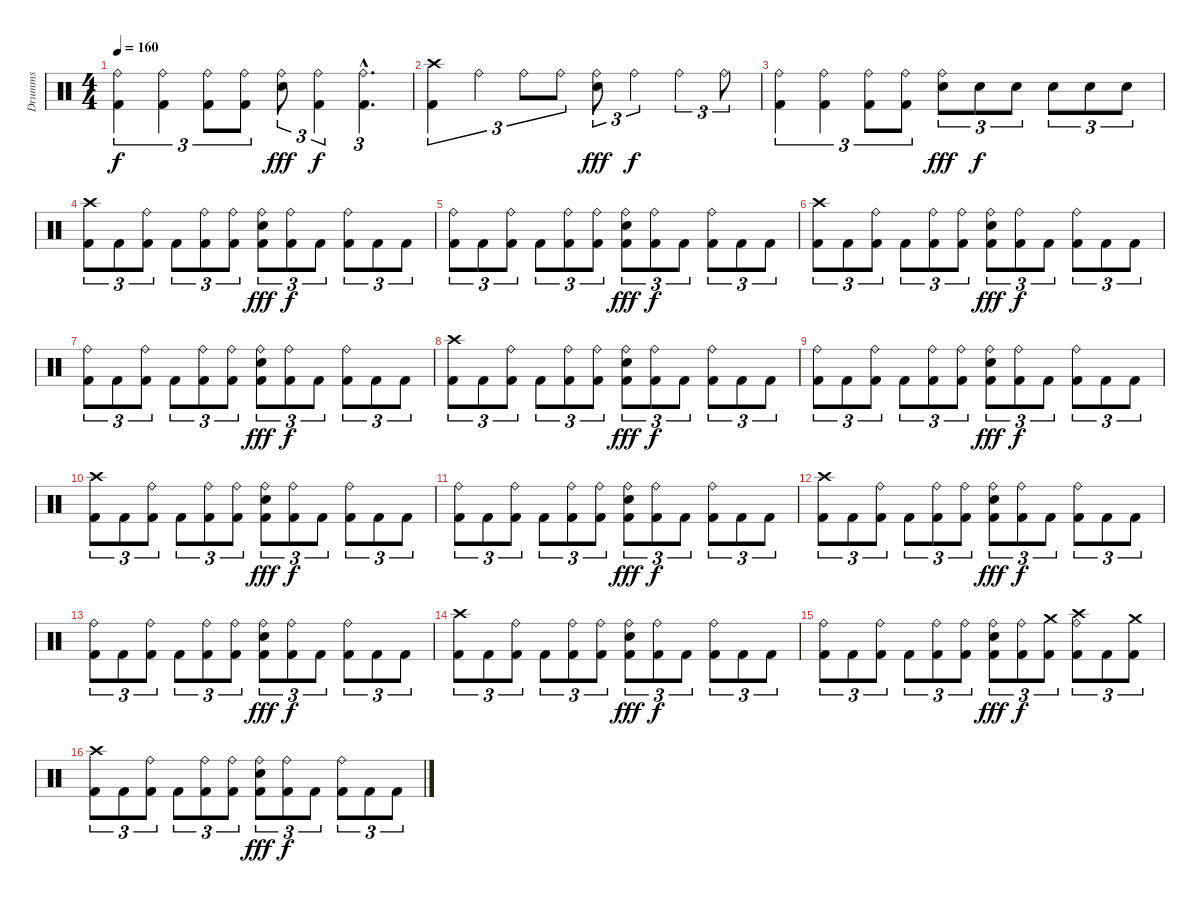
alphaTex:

\track ("Drumms" "Drumms") {instrument percussion}
\staff {score}
\articulation defaults
\ts (4 4)
\tempo 160
\clef neutral
\ks c
("Ride (bell)" "Kick (hit) 2").4{tu (3 2) dy f} ("Ride (bell)" "Kick (hit) 2").4{tu (3 2)} ("Ride (bell)" "Kick (hit) 2").8{tu (3 2)} ("Ride (bell)" "Kick (hit) 2").8{tu (3 2)} ("Ride (bell)" "Snare (hit) 2").8{tu (3 2) dy fff} ("Ride (bell)" "Kick (hit) 2").4{tu (3 2) dy f} ("Ride (bell)" "Kick (hit) 2"{hac}).4{d tu (3 2)} |
("Crash high (hit)" "Kick (hit) 2").4{tu (3 2)} "Ride (bell)".4{tu (3 2)} "Ride (bell)".8{tu (3 2)} "Ride (bell)".8{tu (3 2)} ("Ride (bell)" "Snare (hit) 2").8{tu (3 2) dy fff} "Ride (bell)".4{tu (3 2) dy f} "Ride (bell)".4{tu (3 2)} "Ride (bell)".8{tu (3 2)} |
("Ride (bell)" "Kick (hit) 2").4{tu (3 2)} ("Ride (bell)" "Kick (hit) 2").4{tu (3 2)} ("Ride (bell)" "Kick (hit) 2").8{tu (3 2)} ("Ride (bell)" "Kick (hit) 2").8{tu (3 2)} ("Ride (bell)" "Snare (hit) 2").8{tu (3 2) dy fff} "Snare (hit) 2".8{tu (3 2) dy f} "Snare (hit) 2".8{tu (3 2)} "Snare (hit) 2".8{tu (3 2)} "Snare (hit) 2".8{tu (3 2)} "Snare (hit) 2".8{tu (3 2)} |
("Kick (hit) 2" "Crash high (hit)").8{tu (3 2)} "Kick (hit) 2".8{tu (3 2)} ("Kick (hit) 2" "Ride (bell)").8{tu (3 2)} "Kick (hit) 2".8{tu (3 2)} ("Kick (hit) 2" "Ride (bell)").8{tu (3 2)} ("Kick (hit) 2" "Ride (bell)").8{tu (3 2)} ("Snare (hit) 2" "Kick (hit) 2" "Ride (bell)").8{tu (3 2) dy fff} ("Kick (hit) 2" "Ride (bell)").8{tu (3 2) dy f} "Kick (hit) 2".8{tu (3 2)} ("Kick (hit) 2" "Ride (bell)").8{tu (3 2)} "Kick (hit) 2".8{tu (3 2)} "Kick (hit) 2".8{tu (3 2)} |
\section ("" "")
("Kick (hit) 2" "Ride (bell)").8{tu (3 2)} "Kick (hit) 2".8{tu (3 2)} ("Kick (hit) 2" "Ride (bell)").8{tu (3 2)} "Kick (hit) 2".8{tu (3 2)} ("Kick (hit) 2" "Ride (bell)").8{tu (3 2)} ("Kick (hit) 2" "Ride (bell)").8{tu (3 2)} ("Snare (hit) 2" "Kick (hit) 2" "Ride (bell)").8{tu (3 2) dy fff} ("Kick (hit) 2" "Ride (bell)").8{tu (3 2) dy f} "Kick (hit) 2".8{tu (3 2)} ("Kick (hit) 2" "Ride (bell)").8{tu (3 2)} "Kick (hit) 2".8{tu (3 2)} "Kick (hit) 2".8{tu (3 2)} |
("Kick (hit) 2" "Crash high (hit)").8{tu (3 2)} "Kick (hit) 2".8{tu (3 2)} ("Kick (hit) 2" "Ride (bell)").8{tu (3 2)} "Kick (hit) 2".8{tu (3 2)} ("Kick (hit) 2" "Ride (bell)").8{tu (3 2)} ("Kick (hit) 2" "Ride (bell)").8{tu (3 2)} ("Snare (hit) 2" "Kick (hit) 2" "Ride (bell)").8{tu (3 2) dy fff} ("Kick (hit) 2" "Ride (bell)").8{tu (3 2) dy f} "Kick (hit) 2".8{tu (3 2)} ("Kick (hit) 2" "Ride (bell)").8{tu (3 2)} "Kick (hit) 2".8{tu (3 2)} "Kick (hit) 2".8{tu (3 2)} |
("Kick (hit) 2" "Ride (bell)").8{tu (3 2)} "Kick (hit) 2".8{tu (3 2)} ("Kick (hit) 2" "Ride (bell)").8{tu (3 2)} "Kick (hit) 2".8{tu (3 2)} ("Kick (hit) 2" "Ride (bell)").8{tu (3 2)} ("Kick (hit) 2" "Ride (bell)").8{tu (3 2)} ("Snare (hit) 2" "Kick (hit) 2" "Ride (bell)").8{tu (3 2) dy fff} ("Kick (hit) 2" "Ride (bell)").8{tu (3 2) dy f} "Kick (hit) 2".8{tu (3 2)} ("Kick (hit) 2" "Ride (bell)").8{tu (3 2)} "Kick (hit) 2".8{tu (3 2)} "Kick (hit) 2".8{tu (3 2)} |
("Kick (hit) 2" "Crash high (hit)").8{tu (3 2)} "Kick (hit) 2".8{tu (3 2)} ("Kick (hit) 2" "Ride (bell)").8{tu (3 2)} "Kick (hit) 2".8{tu (3 2)} ("Kick (hit) 2" "Ride (bell)").8{tu (3 2)} ("Kick (hit) 2" "Ride (bell)").8{tu (3 2)} ("Snare (hit) 2" "Kick (hit) 2" "Ride (bell)").8{tu (3 2) dy fff} ("Kick (hit) 2" "Ride (bell)").8{tu (3 2) dy f} "Kick (hit) 2".8{tu (3 2)} ("Kick (hit) 2" "Ride (bell)").8{tu (3 2)} "Kick (hit) 2".8{tu (3 2)} "Kick (hit) 2".8{tu (3 2)} |
("Kick (hit) 2" "Ride (bell)").8{tu (3 2)} "Kick (hit) 2".8{tu (3 2)} ("Kick (hit) 2" "Ride (bell)").8{tu (3 2)} "Kick (hit) 2".8{tu (3 2)} ("Kick (hit) 2" "Ride (bell)").8{tu (3 2)} ("Kick (hit) 2" "Ride (bell)").8{tu (3 2)} ("Snare (hit) 2" "Kick (hit) 2" "Ride (bell)").8{tu (3 2) dy fff} ("Kick (hit) 2" "Ride (bell)").8{tu (3 2) dy f} "Kick (hit) 2".8{tu (3 2)} ("Kick (hit) 2" "Ride (bell)").8{tu (3 2)} "Kick (hit) 2".8{tu (3 2)} "Kick (hit) 2".8{tu (3 2)} |
("Kick (hit) 2" "Crash high (hit)").8{tu (3 2)} "Kick (hit) 2".8{tu (3 2)} ("Kick (hit) 2" "Ride (bell)").8{tu (3 2)} "Kick (hit) 2".8{tu (3 2)} ("Kick (hit) 2" "Ride (bell)").8{tu (3 2)} ("Kick (hit) 2" "Ride (bell)").8{tu (3 2)} ("Snare (hit) 2" "Kick (hit) 2" "Ride (bell)").8{tu (3 2) dy fff} ("Kick (hit) 2" "Ride (bell)").8{tu (3 2) dy f} "Kick (hit) 2".8{tu (3 2)} ("Kick (hit) 2" "Ride (bell)").8{tu (3 2)} "Kick (hit) 2".8{tu (3 2)} "Kick (hit) 2".8{tu (3 2)} |
("Kick (hit) 2" "Ride (bell)").8{tu (3 2)} "Kick (hit) 2".8{tu (3 2)} ("Kick (hit) 2" "Ride (bell)").8{tu (3 2)} "Kick (hit) 2".8{tu (3 2)} ("Kick (hit) 2" "Ride (bell)").8{tu (3 2)} ("Kick (hit) 2" "Ride (bell)").8{tu (3 2)} ("Snare (hit) 2" "Kick (hit) 2" "Ride (bell)").8{tu (3 2) dy fff} ("Kick (hit) 2" "Ride (bell)").8{tu (3 2) dy f} "Kick (hit) 2".8{tu (3 2)} ("Kick (hit) 2" "Ride (bell)").8{tu (3 2)} "Kick (hit) 2".8{tu (3 2)} "Kick (hit) 2".8{tu (3 2)} |
("Kick (hit) 2" "Crash high (hit)").8{tu (3 2)} "Kick (hit) 2".8{tu (3 2)} ("Kick (hit) 2" "Ride (bell)").8{tu (3 2)} "Kick (hit) 2".8{tu (3 2)} ("Kick (hit) 2" "Ride (bell)").8{tu (3 2)} ("Kick (hit) 2" "Ride (bell)").8{tu (3 2)} ("Snare (hit) 2" "Kick (hit) 2" "Ride (bell)").8{tu (3 2) dy fff} ("Kick (hit) 2" "Ride (bell)").8{tu (3 2) dy f} "Kick (hit) 2".8{tu (3 2)} ("Kick (hit) 2" "Ride (bell)").8{tu (3 2)} "Kick (hit) 2".8{tu (3 2)} "Kick (hit) 2".8{tu (3 2)} |
("Kick (hit) 2" "Ride (bell)").8{tu (3 2)} "Kick (hit) 2".8{tu (3 2)} ("Kick (hit) 2" "Ride (bell)").8{tu (3 2)} "Kick (hit) 2".8{tu (3 2)} ("Kick (hit) 2" "Ride (bell)").8{tu (3 2)} ("Kick (hit) 2" "Ride (bell)").8{tu (3 2)} ("Snare (hit) 2" "Kick (hit) 2" "Ride (bell)").8{tu (3 2) dy fff} ("Kick (hit) 2" "Ride (bell)").8{tu (3 2) dy f} "Kick (hit) 2".8{tu (3 2)} ("Kick (hit) 2" "Ride (bell)").8{tu (3 2)} "Kick (hit) 2".8{tu (3 2)} "Kick (hit) 2".8{tu (3 2)} |
("Kick (hit) 2" "Crash high (hit)").8{tu (3 2)} "Kick (hit) 2".8{tu (3 2)} ("Kick (hit) 2" "Ride (bell)").8{tu (3 2)} "Kick (hit) 2".8{tu (3 2)} ("Kick (hit) 2" "Ride (bell)").8{tu (3 2)} ("Kick (hit) 2" "Ride (bell)").8{tu (3 2)} ("Snare (hit) 2" "Kick (hit) 2" "Ride (bell)").8{tu (3 2) dy fff} ("Kick (hit) 2" "Ride (bell)").8{tu (3 2) dy f} "Kick (hit) 2".8{tu (3 2)} ("Kick (hit) 2" "Ride (bell)").8{tu (3 2)} "Kick (hit) 2".8{tu (3 2)} "Kick (hit) 2".8{tu (3 2)} |
("Kick (hit) 2" "Ride (bell)").8{tu (3 2)} "Kick (hit) 2".8{tu (3 2)} ("Kick (hit) 2" "Ride (bell)").8{tu (3 2)} "Kick (hit) 2".8{tu (3 2)} ("Kick (hit) 2" "Ride (bell)").8{tu (3 2)} ("Kick (hit) 2" "Ride (bell)").8{tu (3 2)} ("Snare (hit) 2" "Kick (hit) 2" "Ride (bell)").8{tu (3 2) dy fff} ("Kick (hit) 2" "Ride (bell)").8{tu (3 2) dy f} ("Kick (hit) 2" "Crash medium (hit)").8{tu (3 2)} ("Kick (hit) 2" "Ride (bell)" "Crash high (hit)").8{tu (3 2)} "Kick (hit) 2".8{tu (3 2)} ("Kick (hit) 2" "Crash medium (hit)").8{tu (3 2)} |
("Kick (hit) 2" "Crash high (hit)").8{tu (3 2)} "Kick (hit) 2".8{tu (3 2)} ("Kick (hit) 2" "Ride (bell)").8{tu (3 2)} "Kick (hit) 2".8{tu (3 2)} ("Kick (hit) 2" "Ride (bell)").8{tu (3 2)} ("Kick (hit) 2" "Ride (bell)").8{tu (3 2)} ("Snare (hit) 2" "Kick (hit) 2" "Ride (bell)").8{tu (3 2) dy fff} ("Kick (hit) 2" "Ride (bell)").8{tu (3 2) dy f} "Kick (hit) 2".8{tu (3 2)} ("Kick (hit) 2" "Ride (bell)").8{tu (3 2)} "Kick (hit) 2".8{tu (3 2)} "Kick (hit) 2".8{tu (3 2)}
